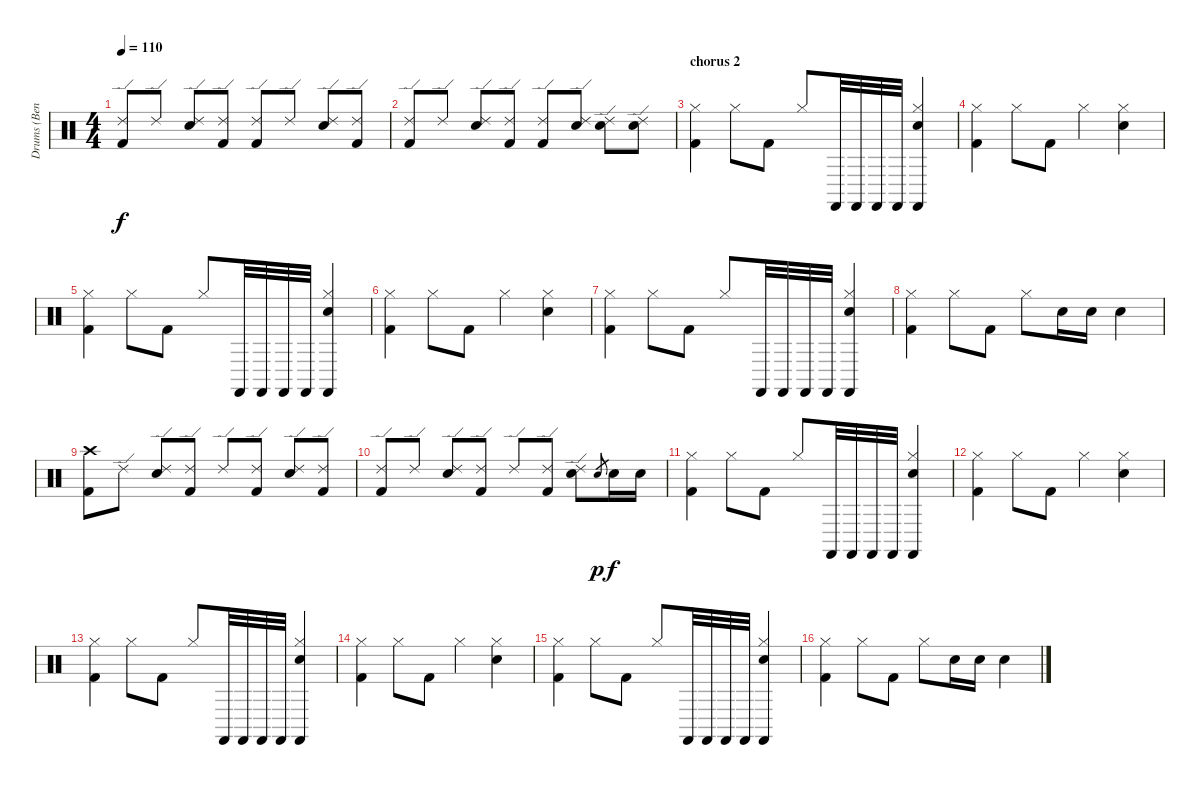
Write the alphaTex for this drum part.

\track ("Drums (Bengerg)" "Drums (Ben") {instrument percussion}
\staff {score}
\articulation defaults
\ts (4 4)
\tempo 110
\clef neutral
\ks c
("Ride (edge) 2" "Kick (hit) 2").8{dy f} "Ride (edge) 2".8 ("Ride (edge) 2" "Electric Snare (hit)").8 ("Ride (edge) 2" "Kick (hit) 2").8 ("Ride (edge) 2" "Kick (hit) 2").8 "Ride (edge) 2".8 ("Ride (edge) 2" "Electric Snare (hit)").8 ("Ride (edge) 2" "Kick (hit) 2").8 |
("Ride (edge) 2" "Kick (hit) 2").8 "Ride (edge) 2".8 ("Ride (edge) 2" "Electric Snare (hit)").8 ("Ride (edge) 2" "Kick (hit) 2").8 ("Ride (edge) 2" "Kick (hit) 2").8 ("Ride (edge) 2" "Electric Snare (hit)").8 ("Ride (edge) 2" "Electric Snare (hit)").8 ("Ride (edge) 2" "Electric Snare (hit)").8 |
\section ("" "chorus 2")
("Hi-Hat (closed)" "Kick (hit) 2").4 "Hi-Hat (closed)".8 "Kick (hit) 2".8 "Hi-Hat (closed)".8 "Castanets (hit)".32 "Castanets (hit)".32 "Castanets (hit)".32 "Castanets (hit)".32 ("Castanets (hit)" "Hi-Hat (closed)" "Electric Snare (hit)").4 |
("Hi-Hat (closed)" "Kick (hit) 2").4 "Hi-Hat (closed)".8 "Kick (hit) 2".8 "Hi-Hat (closed)".4 ("Hi-Hat (closed)" "Electric Snare (hit)").4 |
("Hi-Hat (closed)" "Kick (hit) 2").4 "Hi-Hat (closed)".8 "Kick (hit) 2".8 "Hi-Hat (closed)".8 "Castanets (hit)".32 "Castanets (hit)".32 "Castanets (hit)".32 "Castanets (hit)".32 ("Castanets (hit)" "Hi-Hat (closed)" "Electric Snare (hit)").4 |
("Hi-Hat (closed)" "Kick (hit) 2").4 "Hi-Hat (closed)".8 "Kick (hit) 2".8 "Hi-Hat (closed)".4 ("Hi-Hat (closed)" "Electric Snare (hit)").4 |
("Hi-Hat (closed)" "Kick (hit) 2").4 "Hi-Hat (closed)".8 "Kick (hit) 2".8 "Hi-Hat (closed)".8 "Castanets (hit)".32 "Castanets (hit)".32 "Castanets (hit)".32 "Castanets (hit)".32 ("Castanets (hit)" "Hi-Hat (closed)" "Electric Snare (hit)").4 |
("Hi-Hat (closed)" "Kick (hit) 2").4 "Hi-Hat (closed)".8 "Kick (hit) 2".8 "Hi-Hat (closed)".8 "Electric Snare (hit)".16 "Electric Snare (hit)".16 "Electric Snare (hit)".4 |
("Crash high (hit)" "Kick (hit) 2").8 "Ride (edge) 2".8 ("Ride (edge) 2" "Electric Snare (hit)").8 ("Ride (edge) 2" "Kick (hit) 2").8 "Ride (edge) 2".8 ("Ride (edge) 2" "Kick (hit) 2").8 ("Ride (edge) 2" "Electric Snare (hit)").8 ("Ride (edge) 2" "Kick (hit) 2").8 |
("Ride (edge) 2" "Kick (hit) 2").8 "Ride (edge) 2".8 ("Ride (edge) 2" "Electric Snare (hit)").8 ("Ride (edge) 2" "Kick (hit) 2").8 "Ride (edge) 2".8 ("Ride (edge) 2" "Kick (hit) 2").8 ("Ride (edge) 2" "Electric Snare (hit)").8 "Electric Snare (hit)".8{gr dy p} "Electric Snare (hit)".16{dy f} "Electric Snare (hit)".16 |
("Hi-Hat (closed)" "Kick (hit) 2").4 "Hi-Hat (closed)".8 "Kick (hit) 2".8 "Hi-Hat (closed)".8 "Castanets (hit)".32 "Castanets (hit)".32 "Castanets (hit)".32 "Castanets (hit)".32 ("Castanets (hit)" "Hi-Hat (closed)" "Electric Snare (hit)").4 |
("Hi-Hat (closed)" "Kick (hit) 2").4 "Hi-Hat (closed)".8 "Kick (hit) 2".8 "Hi-Hat (closed)".4 ("Hi-Hat (closed)" "Electric Snare (hit)").4 |
("Hi-Hat (closed)" "Kick (hit) 2").4 "Hi-Hat (closed)".8 "Kick (hit) 2".8 "Hi-Hat (closed)".8 "Castanets (hit)".32 "Castanets (hit)".32 "Castanets (hit)".32 "Castanets (hit)".32 ("Castanets (hit)" "Hi-Hat (closed)" "Electric Snare (hit)").4 |
("Hi-Hat (closed)" "Kick (hit) 2").4 "Hi-Hat (closed)".8 "Kick (hit) 2".8 "Hi-Hat (closed)".4 ("Hi-Hat (closed)" "Electric Snare (hit)").4 |
("Hi-Hat (closed)" "Kick (hit) 2").4 "Hi-Hat (closed)".8 "Kick (hit) 2".8 "Hi-Hat (closed)".8 "Castanets (hit)".32 "Castanets (hit)".32 "Castanets (hit)".32 "Castanets (hit)".32 ("Castanets (hit)" "Hi-Hat (closed)" "Electric Snare (hit)").4 |
("Hi-Hat (closed)" "Kick (hit) 2").4 "Hi-Hat (closed)".8 "Kick (hit) 2".8 "Hi-Hat (closed)".8 "Electric Snare (hit)".16 "Electric Snare (hit)".16 "Electric Snare (hit)".4
